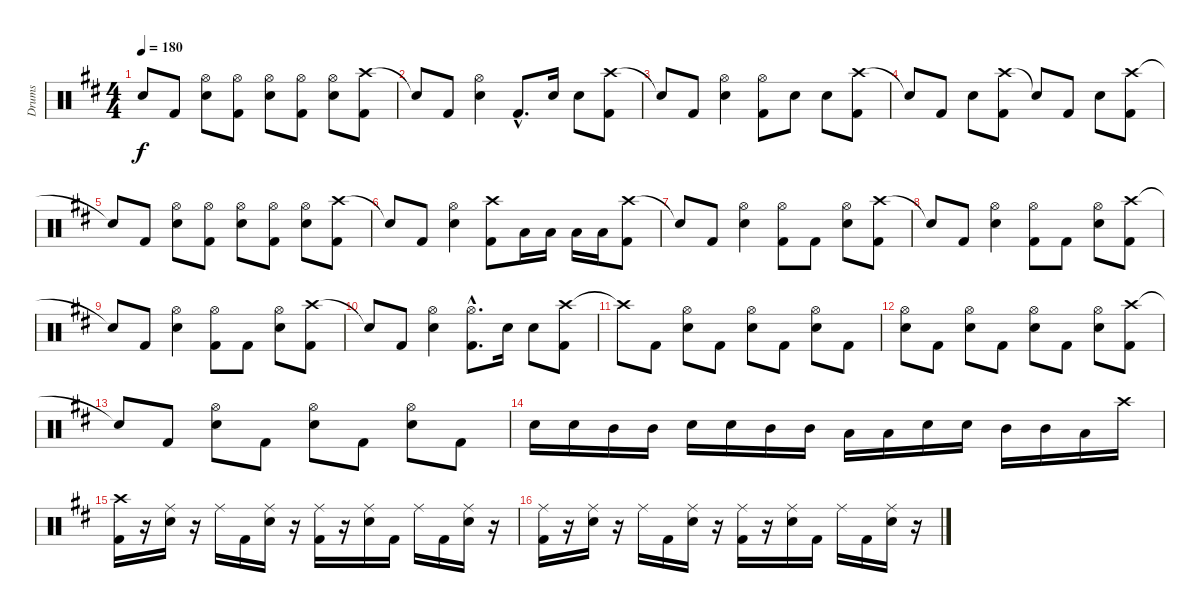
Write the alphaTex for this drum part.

\track ("Drums" "Drums") {instrument percussion}
\staff {score}
\articulation defaults
\ts (4 4)
\tempo 180
\clef neutral
\ks bminor "Snare (hit)"{t}.8{dy f} "Kick (hit) 2".8
("Hi-Hat (open)" "Electric Snare (hit)").8 ("Hi-Hat (open)" "Kick (hit) 2").8 ("Hi-Hat (open)" "Electric Snare (hit)").8 ("Hi-Hat (open)" "Kick (hit) 2").8 ("Hi-Hat (open)" "Electric Snare (hit)").8 ("Crash high (hit)" "Kick (hit) 2").8 |
"Snare (hit)"{t}.8 "Kick (hit) 2".8 ("Hi-Hat (open)" "Electric Snare (hit)").4 "Kick (hit) 2"{hac}.8{d} "Electric Snare (hit)".16 "Electric Snare (hit)".8 ("Crash high (hit)" "Kick (hit) 2").8 |
"Snare (hit)"{t}.8 "Kick (hit) 2".8 ("Hi-Hat (open)" "Electric Snare (hit)").4 ("Hi-Hat (open)" "Kick (hit) 2").8 "Electric Snare (hit)".8 "Electric Snare (hit)".8 ("Crash high (hit)" "Kick (hit) 2").8 |
"Snare (hit)"{t}.8 "Kick (hit) 2".8 "Electric Snare (hit)".8 ("Crash high (hit)" "Kick (hit) 2").8 "Snare (hit)"{t}.8 "Kick (hit) 2".8 "Electric Snare (hit)".8 ("Crash high (hit)" "Kick (hit) 2").8 |
"Snare (hit)"{t}.8 "Kick (hit) 2".8 ("Hi-Hat (open)" "Electric Snare (hit)").8 ("Hi-Hat (open)" "Kick (hit) 2").8 ("Hi-Hat (open)" "Electric Snare (hit)").8 ("Hi-Hat (open)" "Kick (hit) 2").8 ("Hi-Hat (open)" "Electric Snare (hit)").8 ("Crash high (hit)" "Kick (hit) 2").8 |
"Snare (hit)"{t}.8 "Kick (hit) 2".8 ("Hi-Hat (open)" "Electric Snare (hit)").4 ("Crash high (hit)" "Kick (hit) 2").8 "Low Floor Tom (hit)".16 "Low Floor Tom (hit)".16 "Low Floor Tom (hit)".16 "Low Floor Tom (hit)".16 ("Crash high (hit)" "Kick (hit) 2").8 |
"Snare (hit)"{t}.8 "Kick (hit) 2".8 ("Hi-Hat (open)" "Electric Snare (hit)").4 ("Hi-Hat (open)" "Kick (hit) 2").8 "Kick (hit) 2".8 ("Hi-Hat (open)" "Electric Snare (hit)").8 ("Crash high (hit)" "Kick (hit) 2").8 |
"Snare (hit)"{t}.8 "Kick (hit) 2".8 ("Hi-Hat (open)" "Electric Snare (hit)").4 ("Hi-Hat (open)" "Kick (hit) 2").8 "Kick (hit) 2".8 ("Hi-Hat (open)" "Electric Snare (hit)").8 ("Crash high (hit)" "Kick (hit) 2").8 |
"Snare (hit)"{t}.8 "Kick (hit) 2".8 ("Hi-Hat (open)" "Electric Snare (hit)").4 ("Hi-Hat (open)" "Kick (hit) 2").8 "Kick (hit) 2".8 ("Hi-Hat (open)" "Electric Snare (hit)").8 ("Crash high (hit)" "Kick (hit) 2").8 |
"Snare (hit)"{t}.8 "Kick (hit) 2".8 ("Hi-Hat (open)" "Electric Snare (hit)").4 ("Hi-Hat (open)"{hac} "Kick (hit) 2"{hac}).8{d} "Electric Snare (hit)".16 "Electric Snare (hit)".8 ("Crash high (hit)" "Kick (hit) 2").8 |
"Crash high (hit)"{t}.8 "Kick (hit) 2".8 ("Hi-Hat (open)" "Electric Snare (hit)").8 "Kick (hit) 2".8 ("Hi-Hat (open)" "Electric Snare (hit)").8 "Kick (hit) 2".8 ("Hi-Hat (open)" "Electric Snare (hit)").8 "Kick (hit) 2".8 |
("Hi-Hat (open)" "Electric Snare (hit)").8 "Kick (hit) 2".8 ("Hi-Hat (open)" "Electric Snare (hit)").8 "Kick (hit) 2".8 ("Hi-Hat (open)" "Electric Snare (hit)").8 "Kick (hit) 2".8 ("Hi-Hat (open)" "Electric Snare (hit)").8 ("Crash high (hit)" "Kick (hit) 2").8 |
"Snare (hit)"{t}.8 "Kick (hit) 2".8 ("Hi-Hat (open)" "Electric Snare (hit)").8 "Kick (hit) 2".8 ("Hi-Hat (open)" "Electric Snare (hit)").8 "Kick (hit) 2".8 ("Hi-Hat (open)" "Electric Snare (hit)").8 "Kick (hit) 2".8 |
"Electric Snare (hit)".16 "Electric Snare (hit)".16 "Mid Tom (hit)".16 "Mid Tom (hit)".16 "Electric Snare (hit)".16 "Electric Snare (hit)".16 "Mid Tom (hit)".16 "Mid Tom (hit)".16 "Low Tom (hit)".16 "Low Tom (hit)".16 "Electric Snare (hit)".16 "Electric Snare (hit)".16 "Mid Tom (hit)".16 "Mid Tom (hit)".16 "Low Tom (hit)".16 "Crash high (hit)".16 |
("Crash high (hit)" "Kick (hit) 2").16 r.16 ("Ride (middle)" "Electric Snare (hit)").16 r.16 "Ride (middle)".16 "Kick (hit) 2".16 ("Ride (middle)" "Electric Snare (hit)").16 r.16 ("Ride (middle)" "Kick (hit) 2").16 r.16 ("Ride (middle)" "Electric Snare (hit)").16 "Kick (hit) 2".16 "Ride (middle)".16 "Kick (hit) 2".16 ("Ride (middle)" "Electric Snare (hit)").16 r.16 |
("Ride (middle)" "Kick (hit) 2").16 r.16 ("Ride (middle)" "Electric Snare (hit)").16 r.16 "Ride (middle)".16 "Kick (hit) 2".16 ("Ride (middle)" "Electric Snare (hit)").16 r.16 ("Ride (middle)" "Kick (hit) 2").16 r.16 ("Ride (middle)" "Electric Snare (hit)").16 "Kick (hit) 2".16 "Ride (middle)".16 "Kick (hit) 2".16 ("Ride (middle)" "Electric Snare (hit)").16 r.16
